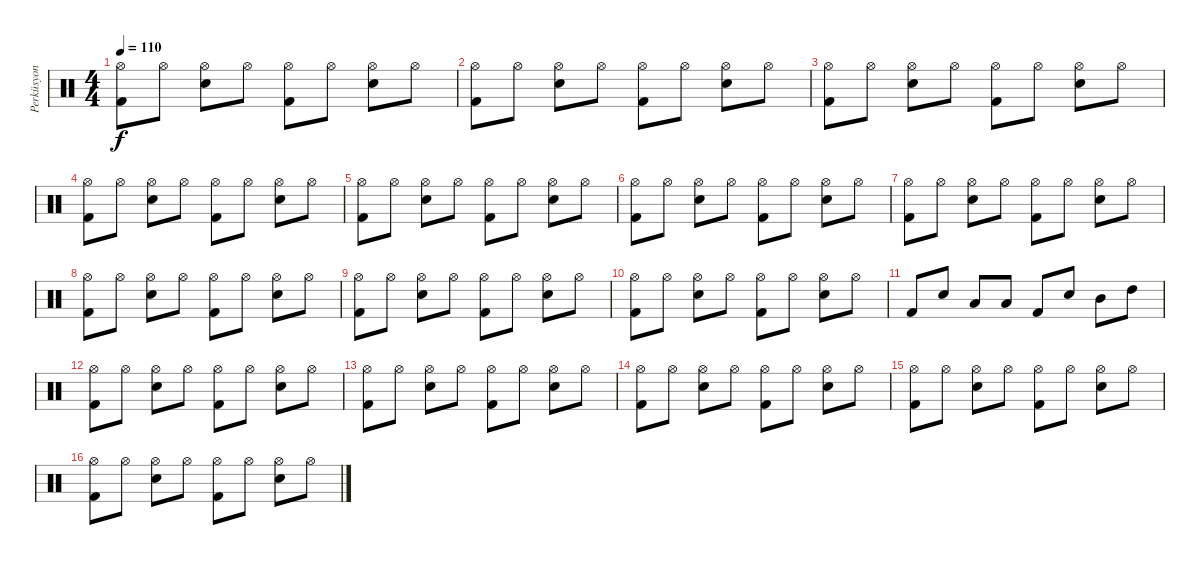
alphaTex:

\track ("Perküsyon" "Perküsyon") {instrument percussion}
\staff {score}
\articulation defaults
\ts (4 4)
\tempo 110
\clef neutral
\ks c
("Hi-Hat (open)" "Kick (hit) 2").8{dy f} "Hi-Hat (open)".8 ("Hi-Hat (open)" "Snare (hit) 2").8 "Hi-Hat (open)".8 ("Hi-Hat (open)" "Kick (hit) 2").8 "Hi-Hat (open)".8 ("Hi-Hat (open)" "Snare (hit) 2").8 "Hi-Hat (open)".8 |
("Hi-Hat (open)" "Kick (hit) 2").8 "Hi-Hat (open)".8 ("Hi-Hat (open)" "Snare (hit) 2").8 "Hi-Hat (open)".8 ("Hi-Hat (open)" "Kick (hit) 2").8 "Hi-Hat (open)".8 ("Hi-Hat (open)" "Snare (hit) 2").8 "Hi-Hat (open)".8 |
("Hi-Hat (open)" "Kick (hit) 2").8 "Hi-Hat (open)".8 ("Hi-Hat (open)" "Snare (hit) 2").8 "Hi-Hat (open)".8 ("Hi-Hat (open)" "Kick (hit) 2").8 "Hi-Hat (open)".8 ("Hi-Hat (open)" "Snare (hit) 2").8 "Hi-Hat (open)".8 |
("Hi-Hat (open)" "Kick (hit) 2").8 "Hi-Hat (open)".8 ("Hi-Hat (open)" "Snare (hit) 2").8 "Hi-Hat (open)".8 ("Hi-Hat (open)" "Kick (hit) 2").8 "Hi-Hat (open)".8 ("Hi-Hat (open)" "Snare (hit) 2").8 "Hi-Hat (open)".8 |
("Hi-Hat (open)" "Kick (hit) 2").8 "Hi-Hat (open)".8 ("Hi-Hat (open)" "Snare (hit) 2").8 "Hi-Hat (open)".8 ("Hi-Hat (open)" "Kick (hit) 2").8 "Hi-Hat (open)".8 ("Hi-Hat (open)" "Snare (hit) 2").8 "Hi-Hat (open)".8 |
("Hi-Hat (open)" "Kick (hit) 2").8 "Hi-Hat (open)".8 ("Hi-Hat (open)" "Snare (hit) 2").8 "Hi-Hat (open)".8 ("Hi-Hat (open)" "Kick (hit) 2").8 "Hi-Hat (open)".8 ("Hi-Hat (open)" "Snare (hit) 2").8 "Hi-Hat (open)".8 |
("Hi-Hat (open)" "Kick (hit) 2").8 "Hi-Hat (open)".8 ("Hi-Hat (open)" "Snare (hit) 2").8 "Hi-Hat (open)".8 ("Hi-Hat (open)" "Kick (hit) 2").8 "Hi-Hat (open)".8 ("Hi-Hat (open)" "Snare (hit) 2").8 "Hi-Hat (open)".8 |
("Hi-Hat (open)" "Kick (hit) 2").8 "Hi-Hat (open)".8 ("Hi-Hat (open)" "Snare (hit) 2").8 "Hi-Hat (open)".8 ("Hi-Hat (open)" "Kick (hit) 2").8 "Hi-Hat (open)".8 ("Hi-Hat (open)" "Snare (hit) 2").8 "Hi-Hat (open)".8 |
("Hi-Hat (open)" "Kick (hit) 2").8 "Hi-Hat (open)".8 ("Hi-Hat (open)" "Snare (hit) 2").8 "Hi-Hat (open)".8 ("Hi-Hat (open)" "Kick (hit) 2").8 "Hi-Hat (open)".8 ("Hi-Hat (open)" "Snare (hit) 2").8 "Hi-Hat (open)".8 |
("Hi-Hat (open)" "Kick (hit) 2").8 "Hi-Hat (open)".8 ("Hi-Hat (open)" "Snare (hit) 2").8 "Hi-Hat (open)".8 ("Hi-Hat (open)" "Kick (hit) 2").8 "Hi-Hat (open)".8 ("Hi-Hat (open)" "Snare (hit) 2").8 "Hi-Hat (open)".8 |
"Kick (hit) 2".8 "Snare (hit) 2".8 "Low Floor Tom (hit)".8 "Low Tom (hit)".8 "Kick (hit) 2".8 "Snare (hit) 2".8 "Mid Tom (hit)".8 "High Tom (hit)".8 |
("Hi-Hat (open)" "Kick (hit) 2").8 "Hi-Hat (open)".8 ("Hi-Hat (open)" "Snare (hit) 2").8 "Hi-Hat (open)".8 ("Hi-Hat (open)" "Kick (hit) 2").8 "Hi-Hat (open)".8 ("Hi-Hat (open)" "Snare (hit) 2").8 "Hi-Hat (open)".8 |
("Hi-Hat (open)" "Kick (hit) 2").8 "Hi-Hat (open)".8 ("Hi-Hat (open)" "Snare (hit) 2").8 "Hi-Hat (open)".8 ("Hi-Hat (open)" "Kick (hit) 2").8 "Hi-Hat (open)".8 ("Hi-Hat (open)" "Snare (hit) 2").8 "Hi-Hat (open)".8 |
("Hi-Hat (open)" "Kick (hit) 2").8 "Hi-Hat (open)".8 ("Hi-Hat (open)" "Snare (hit) 2").8 "Hi-Hat (open)".8 ("Hi-Hat (open)" "Kick (hit) 2").8 "Hi-Hat (open)".8 ("Hi-Hat (open)" "Snare (hit) 2").8 "Hi-Hat (open)".8 |
("Hi-Hat (open)" "Kick (hit) 2").8 "Hi-Hat (open)".8 ("Hi-Hat (open)" "Snare (hit) 2").8 "Hi-Hat (open)".8 ("Hi-Hat (open)" "Kick (hit) 2").8 "Hi-Hat (open)".8 ("Hi-Hat (open)" "Snare (hit) 2").8 "Hi-Hat (open)".8 |
("Hi-Hat (open)" "Kick (hit) 2").8 "Hi-Hat (open)".8 ("Hi-Hat (open)" "Snare (hit) 2").8 "Hi-Hat (open)".8 ("Hi-Hat (open)" "Kick (hit) 2").8 "Hi-Hat (open)".8 ("Hi-Hat (open)" "Snare (hit) 2").8 "Hi-Hat (open)".8
